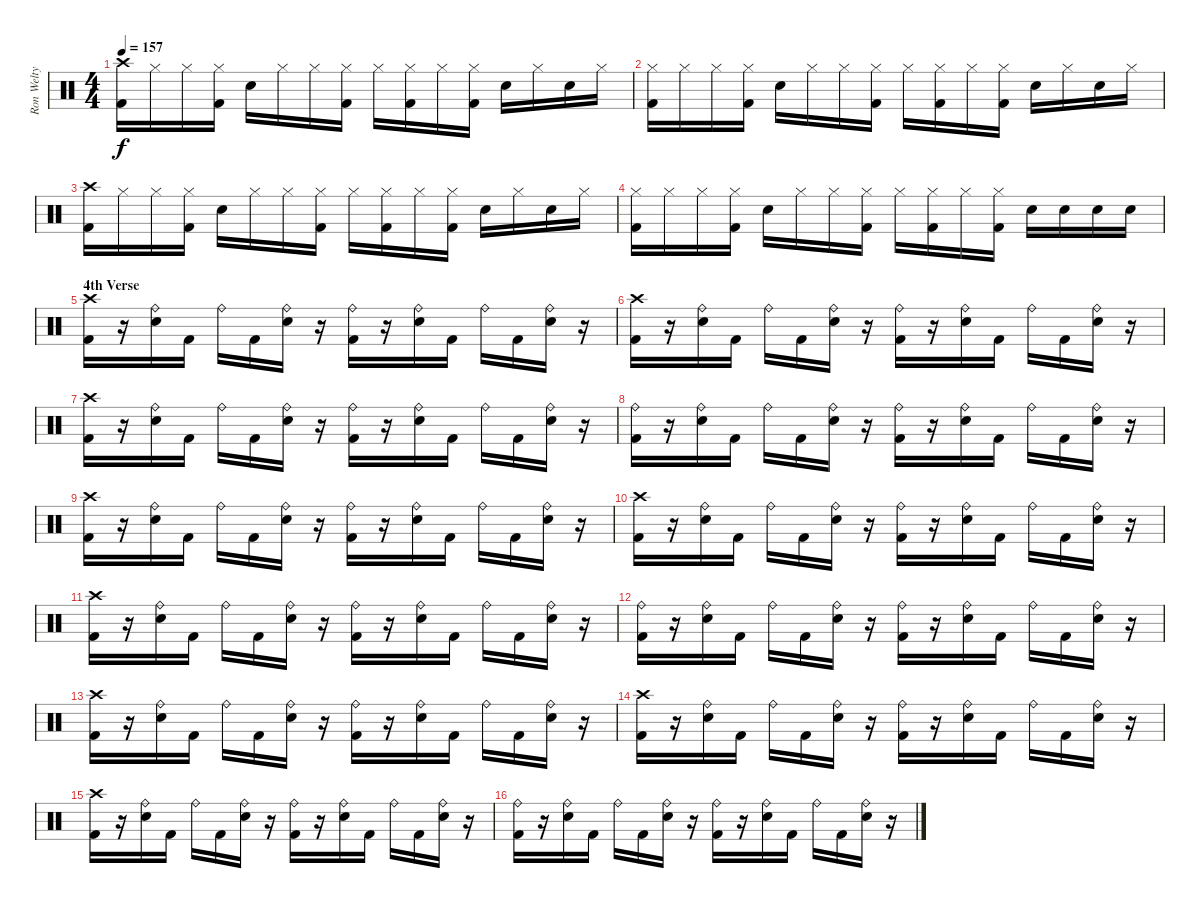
\track ("Ron Welty - Drums" "Ron Welty ") {instrument percussion}
\staff {score}
\articulation defaults
\ts (4 4)
\tempo 157
\clef neutral
\ks c
("Crash high (hit)" "Kick (hit) 2").16{dy f} "Hi-Hat (closed)".16 "Hi-Hat (closed)".16 ("Hi-Hat (closed)" "Kick (hit) 2").16 "Snare (hit) 2".16 "Hi-Hat (closed)".16 "Hi-Hat (closed)".16 ("Hi-Hat (closed)" "Kick (hit) 2").16 "Hi-Hat (closed)".16 ("Hi-Hat (closed)" "Kick (hit) 2").16 "Hi-Hat (closed)".16 ("Hi-Hat (closed)" "Kick (hit) 2").16 "Snare (hit) 2".16 "Hi-Hat (closed)".16 "Snare (hit) 2".16 "Hi-Hat (closed)".16 |
("Hi-Hat (closed)" "Kick (hit) 2").16 "Hi-Hat (closed)".16 "Hi-Hat (closed)".16 ("Hi-Hat (closed)" "Kick (hit) 2").16 "Snare (hit) 2".16 "Hi-Hat (closed)".16 "Hi-Hat (closed)".16 ("Hi-Hat (closed)" "Kick (hit) 2").16 "Hi-Hat (closed)".16 ("Hi-Hat (closed)" "Kick (hit) 2").16 "Hi-Hat (closed)".16 ("Hi-Hat (closed)" "Kick (hit) 2").16 "Snare (hit) 2".16 "Hi-Hat (closed)".16 "Snare (hit) 2".16 "Hi-Hat (closed)".16 |
("Crash high (hit)" "Kick (hit) 2").16 "Hi-Hat (closed)".16 "Hi-Hat (closed)".16 ("Hi-Hat (closed)" "Kick (hit) 2").16 "Snare (hit) 2".16 "Hi-Hat (closed)".16 "Hi-Hat (closed)".16 ("Hi-Hat (closed)" "Kick (hit) 2").16 "Hi-Hat (closed)".16 ("Hi-Hat (closed)" "Kick (hit) 2").16 "Hi-Hat (closed)".16 ("Hi-Hat (closed)" "Kick (hit) 2").16 "Snare (hit) 2".16 "Hi-Hat (closed)".16 "Snare (hit) 2".16 "Hi-Hat (closed)".16 |
("Hi-Hat (closed)" "Kick (hit) 2").16 "Hi-Hat (closed)".16 "Hi-Hat (closed)".16 ("Hi-Hat (closed)" "Kick (hit) 2").16 "Snare (hit) 2".16 "Hi-Hat (closed)".16 "Hi-Hat (closed)".16 ("Hi-Hat (closed)" "Kick (hit) 2").16 "Hi-Hat (closed)".16 ("Hi-Hat (closed)" "Kick (hit) 2").16 "Hi-Hat (closed)".16 ("Hi-Hat (closed)" "Kick (hit) 2").16 "Snare (hit) 2".16 "Snare (hit) 2".16 "Snare (hit) 2".16 "Snare (hit) 2".16 |
\section ("" "4th Verse")
("Crash high (hit)" "Kick (hit) 2").16 r.16 ("Ride (bell)" "Snare (hit) 2").16 "Kick (hit) 2".16 "Ride (bell)".16 "Kick (hit) 2".16 ("Ride (bell)" "Snare (hit) 2").16 r.16 ("Ride (bell)" "Kick (hit) 2").16 r.16 ("Ride (bell)" "Snare (hit) 2").16 "Kick (hit) 2".16 "Ride (bell)".16 "Kick (hit) 2".16 ("Ride (bell)" "Snare (hit) 2").16 r.16 |
("Crash high (hit)" "Kick (hit) 2").16 r.16 ("Ride (bell)" "Snare (hit) 2").16 "Kick (hit) 2".16 "Ride (bell)".16 "Kick (hit) 2".16 ("Ride (bell)" "Snare (hit) 2").16 r.16 ("Ride (bell)" "Kick (hit) 2").16 r.16 ("Ride (bell)" "Snare (hit) 2").16 "Kick (hit) 2".16 "Ride (bell)".16 "Kick (hit) 2".16 ("Ride (bell)" "Snare (hit) 2").16 r.16 |
("Crash high (hit)" "Kick (hit) 2").16 r.16 ("Ride (bell)" "Snare (hit) 2").16 "Kick (hit) 2".16 "Ride (bell)".16 "Kick (hit) 2".16 ("Ride (bell)" "Snare (hit) 2").16 r.16 ("Ride (bell)" "Kick (hit) 2").16 r.16 ("Ride (bell)" "Snare (hit) 2").16 "Kick (hit) 2".16 "Ride (bell)".16 "Kick (hit) 2".16 ("Ride (bell)" "Snare (hit) 2").16 r.16 |
("Ride (bell)" "Kick (hit) 2").16 r.16 ("Ride (bell)" "Snare (hit) 2").16 "Kick (hit) 2".16 "Ride (bell)".16 "Kick (hit) 2".16 ("Ride (bell)" "Snare (hit) 2").16 r.16 ("Ride (bell)" "Kick (hit) 2").16 r.16 ("Ride (bell)" "Snare (hit) 2").16 "Kick (hit) 2".16 "Ride (bell)".16 "Kick (hit) 2".16 ("Ride (bell)" "Snare (hit) 2").16 r.16 |
("Crash high (hit)" "Kick (hit) 2").16 r.16 ("Ride (bell)" "Snare (hit) 2").16 "Kick (hit) 2".16 "Ride (bell)".16 "Kick (hit) 2".16 ("Ride (bell)" "Snare (hit) 2").16 r.16 ("Ride (bell)" "Kick (hit) 2").16 r.16 ("Ride (bell)" "Snare (hit) 2").16 "Kick (hit) 2".16 "Ride (bell)".16 "Kick (hit) 2".16 ("Ride (bell)" "Snare (hit) 2").16 r.16 |
("Crash high (hit)" "Kick (hit) 2").16 r.16 ("Ride (bell)" "Snare (hit) 2").16 "Kick (hit) 2".16 "Ride (bell)".16 "Kick (hit) 2".16 ("Ride (bell)" "Snare (hit) 2").16 r.16 ("Ride (bell)" "Kick (hit) 2").16 r.16 ("Ride (bell)" "Snare (hit) 2").16 "Kick (hit) 2".16 "Ride (bell)".16 "Kick (hit) 2".16 ("Ride (bell)" "Snare (hit) 2").16 r.16 |
("Crash high (hit)" "Kick (hit) 2").16 r.16 ("Ride (bell)" "Snare (hit) 2").16 "Kick (hit) 2".16 "Ride (bell)".16 "Kick (hit) 2".16 ("Ride (bell)" "Snare (hit) 2").16 r.16 ("Ride (bell)" "Kick (hit) 2").16 r.16 ("Ride (bell)" "Snare (hit) 2").16 "Kick (hit) 2".16 "Ride (bell)".16 "Kick (hit) 2".16 ("Ride (bell)" "Snare (hit) 2").16 r.16 |
("Ride (bell)" "Kick (hit) 2").16 r.16 ("Ride (bell)" "Snare (hit) 2").16 "Kick (hit) 2".16 "Ride (bell)".16 "Kick (hit) 2".16 ("Ride (bell)" "Snare (hit) 2").16 r.16 ("Ride (bell)" "Kick (hit) 2").16 r.16 ("Ride (bell)" "Snare (hit) 2").16 "Kick (hit) 2".16 "Ride (bell)".16 "Kick (hit) 2".16 ("Ride (bell)" "Snare (hit) 2").16 r.16 |
("Crash high (hit)" "Kick (hit) 2").16 r.16 ("Ride (bell)" "Snare (hit) 2").16 "Kick (hit) 2".16 "Ride (bell)".16 "Kick (hit) 2".16 ("Ride (bell)" "Snare (hit) 2").16 r.16 ("Ride (bell)" "Kick (hit) 2").16 r.16 ("Ride (bell)" "Snare (hit) 2").16 "Kick (hit) 2".16 "Ride (bell)".16 "Kick (hit) 2".16 ("Ride (bell)" "Snare (hit) 2").16 r.16 |
("Crash high (hit)" "Kick (hit) 2").16 r.16 ("Ride (bell)" "Snare (hit) 2").16 "Kick (hit) 2".16 "Ride (bell)".16 "Kick (hit) 2".16 ("Ride (bell)" "Snare (hit) 2").16 r.16 ("Ride (bell)" "Kick (hit) 2").16 r.16 ("Ride (bell)" "Snare (hit) 2").16 "Kick (hit) 2".16 "Ride (bell)".16 "Kick (hit) 2".16 ("Ride (bell)" "Snare (hit) 2").16 r.16 |
("Crash high (hit)" "Kick (hit) 2").16 r.16 ("Ride (bell)" "Snare (hit) 2").16 "Kick (hit) 2".16 "Ride (bell)".16 "Kick (hit) 2".16 ("Ride (bell)" "Snare (hit) 2").16 r.16 ("Ride (bell)" "Kick (hit) 2").16 r.16 ("Ride (bell)" "Snare (hit) 2").16 "Kick (hit) 2".16 "Ride (bell)".16 "Kick (hit) 2".16 ("Ride (bell)" "Snare (hit) 2").16 r.16 |
("Ride (bell)" "Kick (hit) 2").16 r.16 ("Ride (bell)" "Snare (hit) 2").16 "Kick (hit) 2".16 "Ride (bell)".16 "Kick (hit) 2".16 ("Ride (bell)" "Snare (hit) 2").16 r.16 ("Ride (bell)" "Kick (hit) 2").16 r.16 ("Ride (bell)" "Snare (hit) 2").16 "Kick (hit) 2".16 "Ride (bell)".16 "Kick (hit) 2".16 ("Ride (bell)" "Snare (hit) 2").16 r.16
